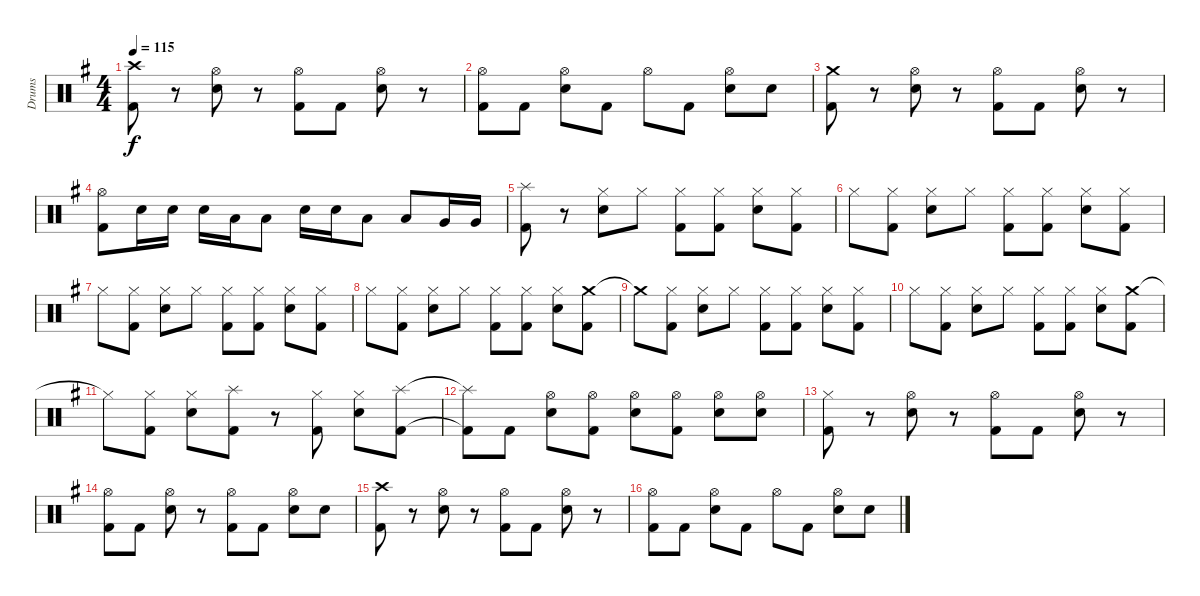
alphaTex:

\track ("Drums" "Drums") {instrument percussion}
\staff {score}
\articulation defaults
\ts (4 4)
\tempo 115
\clef neutral
\ks g
("Crash high (hit)" "Kick (hit) 2").8{dy f} r.8 ("Hi-Hat (open)" "Electric Snare (hit)").8 r.8 ("Hi-Hat (open)" "Kick (hit) 2").8 "Kick (hit) 2".8 ("Hi-Hat (open)" "Electric Snare (hit)").8 r.8 |
("Hi-Hat (open)" "Kick (hit) 2").8 "Kick (hit) 2".8 ("Hi-Hat (open)" "Electric Snare (hit)").8 "Kick (hit) 2".8 "Hi-Hat (open)".8 "Kick (hit) 2".8 ("Hi-Hat (open)" "Electric Snare (hit)").8 "Electric Snare (hit)".8 |
("Crash medium (hit)" "Kick (hit) 2").8 r.8 ("Hi-Hat (open)" "Electric Snare (hit)").8 r.8 ("Hi-Hat (open)" "Kick (hit) 2").8 "Kick (hit) 2".8 ("Hi-Hat (open)" "Electric Snare (hit)").8 r.8 |
("Hi-Hat (open)" "Kick (hit) 2").8 "Electric Snare (hit)".16 "Electric Snare (hit)".16 "Electric Snare (hit)".16 "Low Tom (hit)".16 "Low Tom (hit)".8 "Electric Snare (hit)".16 "Electric Snare (hit)".16 "Low Tom (hit)".8 "Low Tom (hit)".8 "Very Low Tom (hit)".16 "Very Low Tom (hit)".16 |
("Splash (hit)" "Kick (hit) 2").8 r.8 ("Hi-Hat (closed)" "Electric Snare (hit)").8 "Hi-Hat (closed)".8 ("Hi-Hat (closed)" "Kick (hit) 2").8 ("Hi-Hat (closed)" "Kick (hit) 2").8 ("Hi-Hat (closed)" "Electric Snare (hit)").8 ("Hi-Hat (closed)" "Kick (hit) 2").8 |
"Hi-Hat (closed)".8 ("Hi-Hat (closed)" "Kick (hit) 2").8 ("Hi-Hat (closed)" "Electric Snare (hit)").8 "Hi-Hat (closed)".8 ("Hi-Hat (closed)" "Kick (hit) 2").8 ("Hi-Hat (closed)" "Kick (hit) 2").8 ("Hi-Hat (closed)" "Electric Snare (hit)").8 ("Hi-Hat (closed)" "Kick (hit) 2").8 |
"Hi-Hat (closed)".8 ("Hi-Hat (closed)" "Kick (hit) 2").8 ("Hi-Hat (closed)" "Electric Snare (hit)").8 "Hi-Hat (closed)".8 ("Hi-Hat (closed)" "Kick (hit) 2").8 ("Hi-Hat (closed)" "Kick (hit) 2").8 ("Hi-Hat (closed)" "Electric Snare (hit)").8 ("Hi-Hat (closed)" "Kick (hit) 2").8 |
"Hi-Hat (closed)".8 ("Hi-Hat (closed)" "Kick (hit) 2").8 ("Hi-Hat (closed)" "Electric Snare (hit)").8 "Hi-Hat (closed)".8 ("Hi-Hat (closed)" "Kick (hit) 2").8 ("Hi-Hat (closed)" "Kick (hit) 2").8 ("Hi-Hat (closed)" "Electric Snare (hit)").8 ("Crash medium (hit)" "Kick (hit) 2").8 |
"Crash medium (hit)"{t}.8 ("Hi-Hat (closed)" "Kick (hit) 2").8 ("Hi-Hat (closed)" "Electric Snare (hit)").8 "Hi-Hat (closed)".8 ("Hi-Hat (closed)" "Kick (hit) 2").8 ("Hi-Hat (closed)" "Kick (hit) 2").8 ("Hi-Hat (closed)" "Electric Snare (hit)").8 ("Hi-Hat (closed)" "Kick (hit) 2").8 |
"Hi-Hat (closed)".8 ("Hi-Hat (closed)" "Kick (hit) 2").8 ("Hi-Hat (closed)" "Electric Snare (hit)").8 "Hi-Hat (closed)".8 ("Hi-Hat (closed)" "Kick (hit) 2").8 ("Hi-Hat (closed)" "Kick (hit) 2").8 ("Hi-Hat (closed)" "Electric Snare (hit)").8 ("Crash medium (hit)" "Kick (hit) 2").8 |
"Hi-Hat (closed)"{t}.8 ("Hi-Hat (closed)" "Kick (hit) 2").8 ("Hi-Hat (closed)" "Electric Snare (hit)").8 ("Splash (hit)" "Kick (hit) 2").8 r.8 ("Hi-Hat (closed)" "Kick (hit) 2").8 ("Hi-Hat (closed)" "Electric Snare (hit)").8 ("Splash (hit)" "Kick (hit) 2").8 |
("Splash (hit)"{t} "Kick (hit) 2"{t}).8 "Kick (hit) 2".8 ("Hi-Hat (open)" "Electric Snare (hit)").8 ("Hi-Hat (open)" "Kick (hit) 2").8 ("Hi-Hat (open)" "Electric Snare (hit)").8 ("Hi-Hat (open)" "Kick (hit) 2").8 ("Hi-Hat (open)" "Electric Snare (hit)").8 ("Hi-Hat (open)" "Electric Snare (hit)").8 |
("Hi-Hat (closed)" "Kick (hit) 2").8 r.8 ("Hi-Hat (open)" "Electric Snare (hit)").8 r.8 ("Hi-Hat (open)" "Kick (hit) 2").8 "Kick (hit) 2".8 ("Hi-Hat (open)" "Electric Snare (hit)").8 r.8 |
("Hi-Hat (open)" "Kick (hit) 2").8 "Kick (hit) 2".8 ("Hi-Hat (open)" "Electric Snare (hit)").8 r.8 ("Hi-Hat (open)" "Kick (hit) 2").8 "Kick (hit) 2".8 ("Hi-Hat (open)" "Electric Snare (hit)").8 "Electric Snare (hit)".8 |
("Crash high (hit)" "Kick (hit) 2").8 r.8 ("Hi-Hat (open)" "Electric Snare (hit)").8 r.8 ("Hi-Hat (open)" "Kick (hit) 2").8 "Kick (hit) 2".8 ("Hi-Hat (open)" "Electric Snare (hit)").8 r.8 |
("Hi-Hat (open)" "Kick (hit) 2").8 "Kick (hit) 2".8 ("Hi-Hat (open)" "Electric Snare (hit)").8 "Kick (hit) 2".8 "Hi-Hat (open)".8 "Kick (hit) 2".8 ("Hi-Hat (open)" "Electric Snare (hit)").8 "Electric Snare (hit)".8
